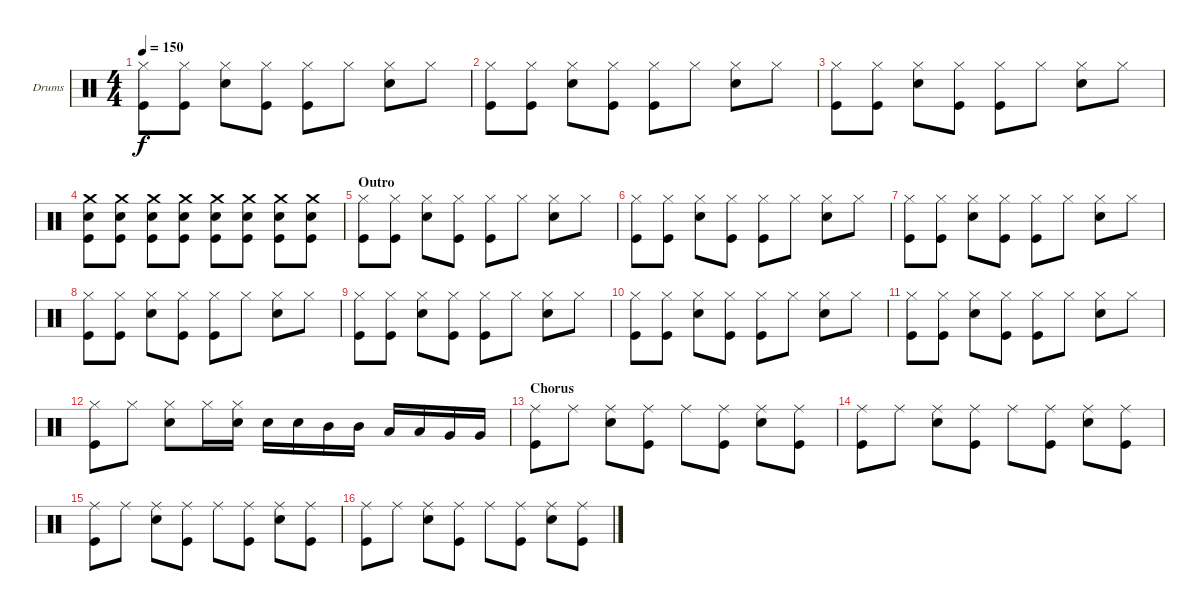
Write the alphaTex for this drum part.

\bracketExtendMode groupsimilarinstruments
\firstSystemTrackNameOrientation horizontal
\otherSystemsTrackNameOrientation horizontal
\track ("Fabrizio" "Drums") {instrument percussion}
\staff {score}
\articulation defaults
\ts (4 4)
\tempo 150
\clef neutral
\ks c
("Hi-Hat (closed)" "Kick (hit)").8{dy f} ("Hi-Hat (closed)" "Kick (hit)").8 ("Hi-Hat (closed)" "Snare (hit) 2").8 ("Hi-Hat (closed)" "Kick (hit)").8 ("Hi-Hat (closed)" "Kick (hit)").8 "Hi-Hat (closed)".8 ("Hi-Hat (closed)" "Snare (hit) 2").8 "Hi-Hat (closed)".8 |
("Hi-Hat (closed)" "Kick (hit)").8 ("Hi-Hat (closed)" "Kick (hit)").8 ("Hi-Hat (closed)" "Snare (hit) 2").8 ("Hi-Hat (closed)" "Kick (hit)").8 ("Hi-Hat (closed)" "Kick (hit)").8 "Hi-Hat (closed)".8 ("Hi-Hat (closed)" "Snare (hit) 2").8 "Hi-Hat (closed)".8 |
("Hi-Hat (closed)" "Kick (hit)").8 ("Hi-Hat (closed)" "Kick (hit)").8 ("Hi-Hat (closed)" "Snare (hit) 2").8 ("Hi-Hat (closed)" "Kick (hit)").8 ("Hi-Hat (closed)" "Kick (hit)").8 "Hi-Hat (closed)".8 ("Hi-Hat (closed)" "Snare (hit) 2").8 "Hi-Hat (closed)".8 |
("Snare (hit) 2" "Crash medium (hit)" "Kick (hit)").8 ("Snare (hit) 2" "Crash medium (hit)" "Kick (hit)").8 ("Snare (hit) 2" "Crash medium (hit)" "Kick (hit)").8 ("Snare (hit) 2" "Crash medium (hit)" "Kick (hit)").8 ("Snare (hit) 2" "Crash medium (hit)" "Kick (hit)").8 ("Snare (hit) 2" "Crash medium (hit)" "Kick (hit)").8 ("Snare (hit) 2" "Crash medium (hit)" "Kick (hit)").8 ("Snare (hit) 2" "Crash medium (hit)" "Kick (hit)").8 |
\section ("" "Outro")
("Hi-Hat (closed)" "Kick (hit)").8 ("Hi-Hat (closed)" "Kick (hit)").8 ("Hi-Hat (closed)" "Snare (hit) 2").8 ("Hi-Hat (closed)" "Kick (hit)").8 ("Hi-Hat (closed)" "Kick (hit)").8 "Hi-Hat (closed)".8 ("Hi-Hat (closed)" "Snare (hit) 2").8 "Hi-Hat (closed)".8 |
("Hi-Hat (closed)" "Kick (hit)").8 ("Hi-Hat (closed)" "Kick (hit)").8 ("Hi-Hat (closed)" "Snare (hit) 2").8 ("Hi-Hat (closed)" "Kick (hit)").8 ("Hi-Hat (closed)" "Kick (hit)").8 "Hi-Hat (closed)".8 ("Hi-Hat (closed)" "Snare (hit) 2").8 "Hi-Hat (closed)".8 |
("Hi-Hat (closed)" "Kick (hit)").8 ("Hi-Hat (closed)" "Kick (hit)").8 ("Hi-Hat (closed)" "Snare (hit) 2").8 ("Hi-Hat (closed)" "Kick (hit)").8 ("Hi-Hat (closed)" "Kick (hit)").8 "Hi-Hat (closed)".8 ("Hi-Hat (closed)" "Snare (hit) 2").8 "Hi-Hat (closed)".8 |
("Hi-Hat (closed)" "Kick (hit)").8 ("Hi-Hat (closed)" "Kick (hit)").8 ("Hi-Hat (closed)" "Snare (hit) 2").8 ("Hi-Hat (closed)" "Kick (hit)").8 ("Hi-Hat (closed)" "Kick (hit)").8 "Hi-Hat (closed)".8 ("Hi-Hat (closed)" "Snare (hit) 2").8 "Hi-Hat (closed)".8 |
("Hi-Hat (closed)" "Kick (hit)").8 ("Hi-Hat (closed)" "Kick (hit)").8 ("Hi-Hat (closed)" "Snare (hit) 2").8 ("Hi-Hat (closed)" "Kick (hit)").8 ("Hi-Hat (closed)" "Kick (hit)").8 "Hi-Hat (closed)".8 ("Hi-Hat (closed)" "Snare (hit) 2").8 "Hi-Hat (closed)".8 |
("Hi-Hat (closed)" "Kick (hit)").8 ("Hi-Hat (closed)" "Kick (hit)").8 ("Hi-Hat (closed)" "Snare (hit) 2").8 ("Hi-Hat (closed)" "Kick (hit)").8 ("Hi-Hat (closed)" "Kick (hit)").8 "Hi-Hat (closed)".8 ("Hi-Hat (closed)" "Snare (hit) 2").8 "Hi-Hat (closed)".8 |
("Hi-Hat (closed)" "Kick (hit)").8 ("Hi-Hat (closed)" "Kick (hit)").8 ("Hi-Hat (closed)" "Snare (hit) 2").8 ("Hi-Hat (closed)" "Kick (hit)").8 ("Hi-Hat (closed)" "Kick (hit)").8 "Hi-Hat (closed)".8 ("Hi-Hat (closed)" "Snare (hit) 2").8 "Hi-Hat (closed)".8 |
("Hi-Hat (closed)" "Kick (hit)").8 "Hi-Hat (closed)".8 ("Hi-Hat (closed)" "Snare (hit) 2").8 "Hi-Hat (closed)".16 ("Hi-Hat (closed)" "Snare (hit) 2").16 "Snare (hit) 2".16 "Snare (hit) 2".16 "Mid Tom (hit)".16 "Mid Tom (hit)".16 "Low Tom (hit)".16 "Low Tom (hit)".16 "Very Low Tom (hit)".16 "Very Low Tom (hit)".16 |
\section ("" "Chorus")
("Ride (middle)" "Kick (hit)").8 "Ride (middle)".8 ("Ride (middle)" "Snare (hit) 2").8 ("Ride (middle)" "Kick (hit)").8 "Ride (middle)".8 ("Ride (middle)" "Kick (hit)").8 ("Ride (middle)" "Snare (hit) 2").8 ("Ride (middle)" "Kick (hit)").8 |
("Ride (middle)" "Kick (hit)").8 "Ride (middle)".8 ("Ride (middle)" "Snare (hit) 2").8 ("Ride (middle)" "Kick (hit)").8 "Ride (middle)".8 ("Ride (middle)" "Kick (hit)").8 ("Ride (middle)" "Snare (hit) 2").8 ("Ride (middle)" "Kick (hit)").8 |
("Ride (middle)" "Kick (hit)").8 "Ride (middle)".8 ("Ride (middle)" "Snare (hit) 2").8 ("Ride (middle)" "Kick (hit)").8 "Ride (middle)".8 ("Ride (middle)" "Kick (hit)").8 ("Ride (middle)" "Snare (hit) 2").8 ("Ride (middle)" "Kick (hit)").8 |
("Ride (middle)" "Kick (hit)").8 "Ride (middle)".8 ("Ride (middle)" "Snare (hit) 2").8 ("Ride (middle)" "Kick (hit)").8 "Ride (middle)".8 ("Ride (middle)" "Kick (hit)").8 ("Ride (middle)" "Snare (hit) 2").8 ("Ride (middle)" "Kick (hit)").8
